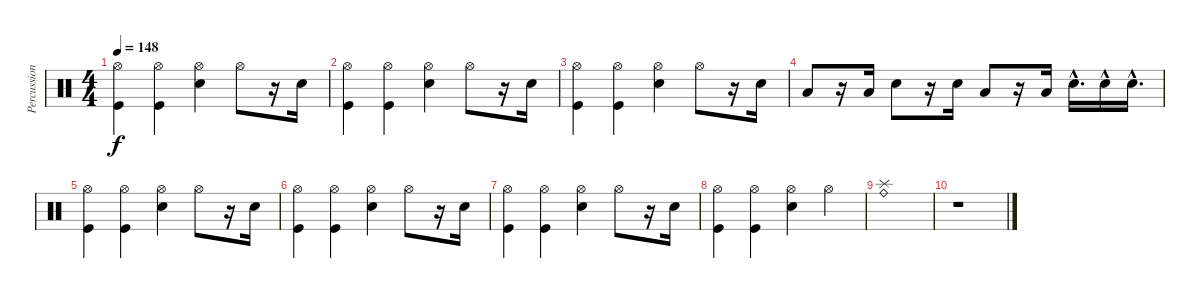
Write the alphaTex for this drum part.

\track ("Percussion" "Percussion") {instrument percussion}
\staff {score}
\articulation defaults
\ts (4 4)
\tempo 148
\clef neutral
\ks c
("Hi-Hat (open)" "Kick (hit)").4{dy f} ("Hi-Hat (open)" "Kick (hit)").4 ("Hi-Hat (open)" "Snare (hit) 2").4 "Hi-Hat (open)".8 r.16 "Snare (hit) 2".16 |
("Hi-Hat (open)" "Kick (hit)").4 ("Hi-Hat (open)" "Kick (hit)").4 ("Hi-Hat (open)" "Snare (hit) 2").4 "Hi-Hat (open)".8 r.16 "Snare (hit) 2".16 |
("Hi-Hat (open)" "Kick (hit)").4 ("Hi-Hat (open)" "Kick (hit)").4 ("Hi-Hat (open)" "Snare (hit) 2").4 "Hi-Hat (open)".8 r.16 "Snare (hit) 2".16 |
"Low Tom (hit)".8 r.16 "Low Tom (hit)".16 "Snare (hit) 2".8 r.16 "Snare (hit) 2".16 "Low Tom (hit)".8 r.16 "Low Tom (hit)".16 "Snare (hit) 2"{hac}.16{d} "Snare (hit) 2"{hac}.16 "Snare (hit) 2"{hac}.16{d} |
("Hi-Hat (open)" "Kick (hit)").4 ("Hi-Hat (open)" "Kick (hit)").4 ("Hi-Hat (open)" "Snare (hit) 2").4 "Hi-Hat (open)".8 r.16 "Snare (hit) 2".16 |
("Hi-Hat (open)" "Kick (hit)").4 ("Hi-Hat (open)" "Kick (hit)").4 ("Hi-Hat (open)" "Snare (hit) 2").4 "Hi-Hat (open)".8 r.16 "Snare (hit) 2".16 |
("Hi-Hat (open)" "Kick (hit)").4 ("Hi-Hat (open)" "Kick (hit)").4 ("Hi-Hat (open)" "Snare (hit) 2").4 "Hi-Hat (open)".8 r.16 "Snare (hit) 2".16 |
("Hi-Hat (open)" "Kick (hit)").4 ("Hi-Hat (open)" "Kick (hit)").4 ("Hi-Hat (open)" "Snare (hit) 2").4 "Hi-Hat (open)".4 |
("Splash (hit)" "Ride (bell)").1 |
r.1
